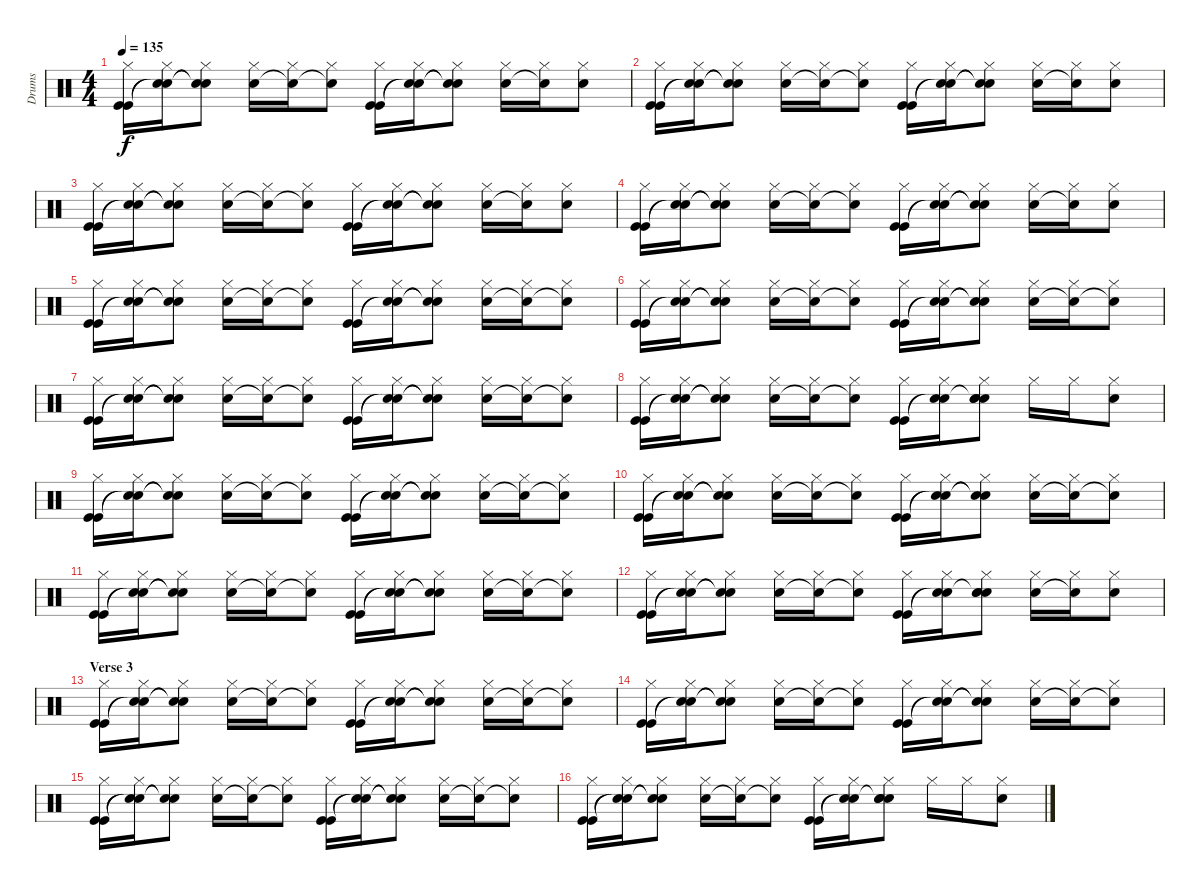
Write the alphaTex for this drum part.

\track ("Drums" "Drums") {instrument percussion}
\staff {score}
\articulation defaults
\ts (4 4)
\tempo 135
\clef neutral
\ks c
("Hi-Hat (closed)" "Kick (hit)" "Kick (hit)").16{dy f} ("Hi-Hat (closed)" "Snare (hit)"{t} "Snare (hit)"{t}).16 ("Hi-Hat (closed)" "Snare (hit)"{t} "Snare (hit)"{t}).8 ("Hi-Hat (closed)" "Snare (hit) 2").16 ("Hi-Hat (closed)" "Snare (hit)"{t}).16 ("Hi-Hat (closed)" "Snare (hit)"{t}).8 ("Hi-Hat (closed)" "Kick (hit)" "Kick (hit)").16 ("Hi-Hat (closed)" "Snare (hit)"{t} "Snare (hit)"{t}).16 ("Hi-Hat (closed)" "Snare (hit)"{t} "Snare (hit)"{t}).8 ("Hi-Hat (closed)" "Snare (hit) 2").16 ("Hi-Hat (closed)" "Snare (hit) 2"{t}).16 ("Hi-Hat (closed)" "Snare (hit) 2").8 |
("Hi-Hat (closed)" "Kick (hit)" "Kick (hit)").16 ("Hi-Hat (closed)" "Snare (hit)"{t} "Snare (hit)"{t}).16 ("Hi-Hat (closed)" "Snare (hit)"{t} "Snare (hit)"{t}).8 ("Hi-Hat (closed)" "Snare (hit) 2").16 ("Hi-Hat (closed)" "Snare (hit)"{t}).16 ("Hi-Hat (closed)" "Snare (hit)"{t}).8 ("Hi-Hat (closed)" "Kick (hit)" "Kick (hit)").16 ("Hi-Hat (closed)" "Snare (hit)"{t} "Snare (hit)"{t}).16 ("Hi-Hat (closed)" "Snare (hit)"{t} "Snare (hit)"{t}).8 ("Hi-Hat (closed)" "Snare (hit) 2").16 ("Hi-Hat (closed)" "Snare (hit) 2"{t}).16 ("Hi-Hat (closed)" "Snare (hit) 2").8 |
("Hi-Hat (closed)" "Kick (hit)" "Kick (hit)").16 ("Hi-Hat (closed)" "Snare (hit)"{t} "Snare (hit)"{t}).16 ("Hi-Hat (closed)" "Snare (hit)"{t} "Snare (hit)"{t}).8 ("Hi-Hat (closed)" "Snare (hit) 2").16 ("Hi-Hat (closed)" "Snare (hit)"{t}).16 ("Hi-Hat (closed)" "Snare (hit)"{t}).8 ("Hi-Hat (closed)" "Kick (hit)" "Kick (hit)").16 ("Hi-Hat (closed)" "Snare (hit)"{t} "Snare (hit)"{t}).16 ("Hi-Hat (closed)" "Snare (hit)"{t} "Snare (hit)"{t}).8 ("Hi-Hat (closed)" "Snare (hit) 2").16 ("Hi-Hat (closed)" "Snare (hit) 2"{t}).16 ("Hi-Hat (closed)" "Snare (hit) 2").8 |
("Hi-Hat (closed)" "Kick (hit)" "Kick (hit)").16 ("Hi-Hat (closed)" "Snare (hit)"{t} "Snare (hit)"{t}).16 ("Hi-Hat (closed)" "Snare (hit)"{t} "Snare (hit)"{t}).8 ("Hi-Hat (closed)" "Snare (hit) 2").16 ("Hi-Hat (closed)" "Snare (hit)"{t}).16 ("Hi-Hat (closed)" "Snare (hit)"{t}).8 ("Hi-Hat (closed)" "Kick (hit)" "Kick (hit)").16 ("Hi-Hat (closed)" "Snare (hit)"{t} "Snare (hit)"{t}).16 ("Hi-Hat (closed)" "Snare (hit)"{t} "Snare (hit)"{t}).8 ("Hi-Hat (closed)" "Snare (hit) 2").16 ("Hi-Hat (closed)" "Snare (hit) 2"{t}).16 ("Hi-Hat (closed)" "Snare (hit) 2").8 |
("Hi-Hat (closed)" "Kick (hit)" "Kick (hit)").16 ("Hi-Hat (closed)" "Snare (hit)"{t} "Snare (hit)"{t}).16 ("Hi-Hat (closed)" "Snare (hit)"{t} "Snare (hit)"{t}).8 ("Hi-Hat (closed)" "Snare (hit) 2").16 ("Hi-Hat (closed)" "Snare (hit)"{t}).16 ("Hi-Hat (closed)" "Snare (hit) 2"{t}).8 ("Hi-Hat (closed)" "Kick (hit)" "Kick (hit)").16 ("Hi-Hat (closed)" "Snare (hit)"{t} "Snare (hit)"{t}).16 ("Hi-Hat (closed)" "Snare (hit)"{t} "Snare (hit)"{t}).8 ("Hi-Hat (closed)" "Snare (hit) 2").16 ("Hi-Hat (closed)" "Snare (hit) 2"{t}).16 ("Hi-Hat (closed)" "Snare (hit)"{t}).8 |
("Hi-Hat (closed)" "Kick (hit)" "Kick (hit)").16 ("Hi-Hat (closed)" "Snare (hit)"{t} "Snare (hit)"{t}).16 ("Hi-Hat (closed)" "Snare (hit)"{t} "Snare (hit)"{t}).8 ("Hi-Hat (closed)" "Snare (hit) 2").16 ("Hi-Hat (closed)" "Snare (hit)"{t}).16 ("Hi-Hat (closed)" "Snare (hit) 2"{t}).8 ("Hi-Hat (closed)" "Kick (hit)" "Kick (hit)").16 ("Hi-Hat (closed)" "Snare (hit)"{t} "Snare (hit)"{t}).16 ("Hi-Hat (closed)" "Snare (hit)"{t} "Snare (hit)"{t}).8 ("Hi-Hat (closed)" "Snare (hit) 2").16 ("Hi-Hat (closed)" "Snare (hit) 2"{t}).16 ("Hi-Hat (closed)" "Snare (hit)"{t}).8 |
("Hi-Hat (closed)" "Kick (hit)" "Kick (hit)").16 ("Hi-Hat (closed)" "Snare (hit)"{t} "Snare (hit)"{t}).16 ("Hi-Hat (closed)" "Snare (hit)"{t} "Snare (hit)"{t}).8 ("Hi-Hat (closed)" "Snare (hit) 2").16 ("Hi-Hat (closed)" "Snare (hit)"{t}).16 ("Hi-Hat (closed)" "Snare (hit) 2"{t}).8 ("Hi-Hat (closed)" "Kick (hit)" "Kick (hit)").16 ("Hi-Hat (closed)" "Snare (hit)"{t} "Snare (hit)"{t}).16 ("Hi-Hat (closed)" "Snare (hit)"{t} "Snare (hit)"{t}).8 ("Hi-Hat (closed)" "Snare (hit) 2").16 ("Hi-Hat (closed)" "Snare (hit) 2"{t}).16 ("Hi-Hat (closed)" "Snare (hit)"{t}).8 |
("Hi-Hat (closed)" "Kick (hit)" "Kick (hit)").16 ("Hi-Hat (closed)" "Snare (hit)"{t} "Snare (hit)"{t}).16 ("Hi-Hat (closed)" "Snare (hit)"{t} "Snare (hit)"{t}).8 ("Hi-Hat (closed)" "Snare (hit) 2").16 ("Hi-Hat (closed)" "Snare (hit)"{t}).16 ("Hi-Hat (closed)" "Snare (hit) 2"{t}).8 ("Hi-Hat (closed)" "Kick (hit)" "Kick (hit)").16 ("Hi-Hat (closed)" "Snare (hit)"{t} "Snare (hit)"{t}).16 ("Hi-Hat (closed)" "Snare (hit) 2" "Snare (hit)"{t} "Snare (hit)").8 "Hi-Hat (closed)".16 "Hi-Hat (closed)".16 ("Hi-Hat (closed)" "Snare (hit) 2").8 |
("Hi-Hat (closed)" "Kick (hit)" "Kick (hit)").16 ("Hi-Hat (closed)" "Snare (hit)"{t} "Snare (hit)"{t}).16 ("Hi-Hat (closed)" "Snare (hit)"{t} "Snare (hit)"{t}).8 ("Hi-Hat (closed)" "Snare (hit) 2").16 ("Hi-Hat (closed)" "Snare (hit)"{t}).16 ("Hi-Hat (closed)" "Snare (hit) 2"{t}).8 ("Hi-Hat (closed)" "Kick (hit)" "Kick (hit)").16 ("Hi-Hat (closed)" "Snare (hit)"{t} "Snare (hit)"{t}).16 ("Hi-Hat (closed)" "Snare (hit)"{t} "Snare (hit)"{t}).8 ("Hi-Hat (closed)" "Snare (hit) 2").16 ("Hi-Hat (closed)" "Snare (hit) 2"{t}).16 ("Hi-Hat (closed)" "Snare (hit)"{t}).8 |
("Hi-Hat (closed)" "Kick (hit)" "Kick (hit)").16 ("Hi-Hat (closed)" "Snare (hit)"{t} "Snare (hit)"{t}).16 ("Hi-Hat (closed)" "Snare (hit)"{t} "Snare (hit)"{t}).8 ("Hi-Hat (closed)" "Snare (hit) 2").16 ("Hi-Hat (closed)" "Snare (hit)"{t}).16 ("Hi-Hat (closed)" "Snare (hit) 2"{t}).8 ("Hi-Hat (closed)" "Kick (hit)" "Kick (hit)").16 ("Hi-Hat (closed)" "Snare (hit)"{t} "Snare (hit)"{t}).16 ("Hi-Hat (closed)" "Snare (hit)"{t} "Snare (hit)"{t}).8 ("Hi-Hat (closed)" "Snare (hit) 2").16 ("Hi-Hat (closed)" "Snare (hit) 2"{t}).16 ("Hi-Hat (closed)" "Snare (hit)"{t}).8 |
("Hi-Hat (closed)" "Kick (hit)" "Kick (hit)").16 ("Hi-Hat (closed)" "Snare (hit)"{t} "Snare (hit)"{t}).16 ("Hi-Hat (closed)" "Snare (hit)"{t} "Snare (hit)"{t}).8 ("Hi-Hat (closed)" "Snare (hit) 2").16 ("Hi-Hat (closed)" "Snare (hit)"{t}).16 ("Hi-Hat (closed)" "Snare (hit) 2"{t}).8 ("Hi-Hat (closed)" "Kick (hit)" "Kick (hit)").16 ("Hi-Hat (closed)" "Snare (hit)"{t} "Snare (hit)"{t}).16 ("Hi-Hat (closed)" "Snare (hit)"{t} "Snare (hit)"{t}).8 ("Hi-Hat (closed)" "Snare (hit) 2").16 ("Hi-Hat (closed)" "Snare (hit) 2"{t}).16 ("Hi-Hat (closed)" "Snare (hit)"{t}).8 |
("Hi-Hat (closed)" "Kick (hit)" "Kick (hit)").16 ("Hi-Hat (closed)" "Snare (hit)"{t} "Snare (hit)"{t}).16 ("Hi-Hat (closed)" "Snare (hit)"{t} "Snare (hit)"{t}).8 ("Hi-Hat (closed)" "Snare (hit) 2").16 ("Hi-Hat (closed)" "Snare (hit)"{t}).16 ("Hi-Hat (closed)" "Snare (hit) 2"{t}).8 ("Hi-Hat (closed)" "Kick (hit)" "Kick (hit)").16 ("Hi-Hat (closed)" "Snare (hit)"{t} "Snare (hit)"{t}).16 ("Hi-Hat (closed)" "Snare (hit) 2" "Snare (hit)"{t} "Snare (hit)").8 ("Hi-Hat (closed)" "Snare (hit) 2").16 ("Hi-Hat (closed)" "Snare (hit) 2"{t}).16 ("Hi-Hat (closed)" "Snare (hit) 2").8 |
\section ("" "Verse 3")
("Hi-Hat (closed)" "Kick (hit)" "Kick (hit)").16 ("Hi-Hat (closed)" "Snare (hit)"{t} "Snare (hit)"{t}).16 ("Hi-Hat (closed)" "Snare (hit)"{t} "Snare (hit)"{t}).8 ("Hi-Hat (closed)" "Snare (hit) 2").16 ("Hi-Hat (closed)" "Snare (hit)"{t}).16 ("Hi-Hat (closed)" "Snare (hit) 2"{t}).8 ("Hi-Hat (closed)" "Kick (hit)" "Kick (hit)").16 ("Hi-Hat (closed)" "Snare (hit)"{t} "Snare (hit)"{t}).16 ("Hi-Hat (closed)" "Snare (hit)"{t} "Snare (hit)"{t}).8 ("Hi-Hat (closed)" "Snare (hit) 2").16 ("Hi-Hat (closed)" "Snare (hit) 2"{t}).16 ("Hi-Hat (closed)" "Snare (hit)"{t}).8 |
("Hi-Hat (closed)" "Kick (hit)" "Kick (hit)").16 ("Hi-Hat (closed)" "Snare (hit)"{t} "Snare (hit)"{t}).16 ("Hi-Hat (closed)" "Snare (hit)"{t} "Snare (hit)"{t}).8 ("Hi-Hat (closed)" "Snare (hit) 2").16 ("Hi-Hat (closed)" "Snare (hit)"{t}).16 ("Hi-Hat (closed)" "Snare (hit) 2"{t}).8 ("Hi-Hat (closed)" "Kick (hit)" "Kick (hit)").16 ("Hi-Hat (closed)" "Snare (hit)"{t} "Snare (hit)"{t}).16 ("Hi-Hat (closed)" "Snare (hit)"{t} "Snare (hit)"{t}).8 ("Hi-Hat (closed)" "Snare (hit) 2").16 ("Hi-Hat (closed)" "Snare (hit) 2"{t}).16 ("Hi-Hat (closed)" "Snare (hit)"{t}).8 |
("Hi-Hat (closed)" "Kick (hit)" "Kick (hit)").16 ("Hi-Hat (closed)" "Snare (hit)"{t} "Snare (hit)"{t}).16 ("Hi-Hat (closed)" "Snare (hit)"{t} "Snare (hit)"{t}).8 ("Hi-Hat (closed)" "Snare (hit) 2").16 ("Hi-Hat (closed)" "Snare (hit)"{t}).16 ("Hi-Hat (closed)" "Snare (hit) 2"{t}).8 ("Hi-Hat (closed)" "Kick (hit)" "Kick (hit)").16 ("Hi-Hat (closed)" "Snare (hit)"{t} "Snare (hit)"{t}).16 ("Hi-Hat (closed)" "Snare (hit)"{t} "Snare (hit)"{t}).8 ("Hi-Hat (closed)" "Snare (hit) 2").16 ("Hi-Hat (closed)" "Snare (hit) 2"{t}).16 ("Hi-Hat (closed)" "Snare (hit)"{t}).8 |
("Hi-Hat (closed)" "Kick (hit)" "Kick (hit)").16 ("Hi-Hat (closed)" "Snare (hit)"{t} "Snare (hit)"{t}).16 ("Hi-Hat (closed)" "Snare (hit)"{t} "Snare (hit)"{t}).8 ("Hi-Hat (closed)" "Snare (hit) 2").16 ("Hi-Hat (closed)" "Snare (hit)"{t}).16 ("Hi-Hat (closed)" "Snare (hit) 2"{t}).8 ("Hi-Hat (closed)" "Kick (hit)" "Kick (hit)").16 ("Hi-Hat (closed)" "Snare (hit)"{t} "Snare (hit)"{t}).16 ("Hi-Hat (closed)" "Snare (hit) 2" "Snare (hit)"{t} "Snare (hit)").8 "Hi-Hat (closed)".16 "Hi-Hat (closed)".16 ("Hi-Hat (closed)" "Snare (hit) 2").8
